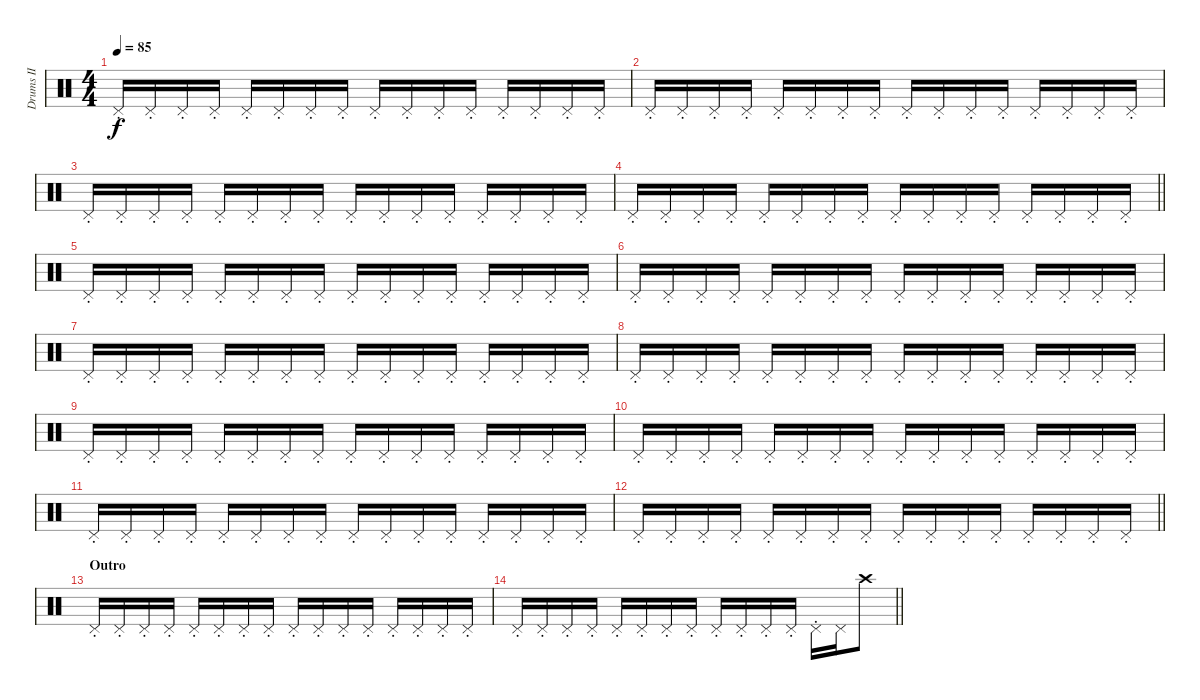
\track ("Drums II" "Drums II") {instrument percussion}
\staff {score}
\articulation defaults
\ts (4 4)
\tempo 85
\clef neutral
\ks c "Pedal Hi-Hat (hit)"{st}.16{dy f} "Pedal Hi-Hat (hit)"{st}.16 "Pedal Hi-Hat (hit)"{st}.16 "Pedal Hi-Hat (hit)"{st}.16 "Pedal Hi-Hat (hit)"{st}.16 "Pedal Hi-Hat (hit)"{st}.16 "Pedal Hi-Hat (hit)"{st}.16 "Pedal Hi-Hat (hit)"{st}.16 "Pedal Hi-Hat (hit)"{st}.16 "Pedal Hi-Hat (hit)"{st}.16 "Pedal Hi-Hat (hit)"{st}.16 "Pedal Hi-Hat (hit)"{st}.16 "Pedal Hi-Hat (hit)"{st}.16 "Pedal Hi-Hat (hit)"{st}.16 "Pedal Hi-Hat (hit)"{st}.16 "Pedal Hi-Hat (hit)"{st}.16
|
"Pedal Hi-Hat (hit)"{st}.16 "Pedal Hi-Hat (hit)"{st}.16 "Pedal Hi-Hat (hit)"{st}.16 "Pedal Hi-Hat (hit)"{st}.16 "Pedal Hi-Hat (hit)"{st}.16 "Pedal Hi-Hat (hit)"{st}.16 "Pedal Hi-Hat (hit)"{st}.16 "Pedal Hi-Hat (hit)"{st}.16 "Pedal Hi-Hat (hit)"{st}.16 "Pedal Hi-Hat (hit)"{st}.16 "Pedal Hi-Hat (hit)"{st}.16 "Pedal Hi-Hat (hit)"{st}.16 "Pedal Hi-Hat (hit)"{st}.16 "Pedal Hi-Hat (hit)"{st}.16 "Pedal Hi-Hat (hit)"{st}.16 "Pedal Hi-Hat (hit)"{st}.16 |
"Pedal Hi-Hat (hit)"{st}.16 "Pedal Hi-Hat (hit)"{st}.16 "Pedal Hi-Hat (hit)"{st}.16 "Pedal Hi-Hat (hit)"{st}.16 "Pedal Hi-Hat (hit)"{st}.16 "Pedal Hi-Hat (hit)"{st}.16 "Pedal Hi-Hat (hit)"{st}.16 "Pedal Hi-Hat (hit)"{st}.16 "Pedal Hi-Hat (hit)"{st}.16 "Pedal Hi-Hat (hit)"{st}.16 "Pedal Hi-Hat (hit)"{st}.16 "Pedal Hi-Hat (hit)"{st}.16 "Pedal Hi-Hat (hit)"{st}.16 "Pedal Hi-Hat (hit)"{st}.16 "Pedal Hi-Hat (hit)"{st}.16 "Pedal Hi-Hat (hit)"{st}.16 |
\barLineRight lightlight "Pedal Hi-Hat (hit)"{st}.16 "Pedal Hi-Hat (hit)"{st}.16 "Pedal Hi-Hat (hit)"{st}.16 "Pedal Hi-Hat (hit)"{st}.16 "Pedal Hi-Hat (hit)"{st}.16 "Pedal Hi-Hat (hit)"{st}.16 "Pedal Hi-Hat (hit)"{st}.16 "Pedal Hi-Hat (hit)"{st}.16 "Pedal Hi-Hat (hit)"{st}.16 "Pedal Hi-Hat (hit)"{st}.16 "Pedal Hi-Hat (hit)"{st}.16 "Pedal Hi-Hat (hit)"{st}.16 "Pedal Hi-Hat (hit)"{st}.16 "Pedal Hi-Hat (hit)"{st}.16 "Pedal Hi-Hat (hit)"{st}.16 "Pedal Hi-Hat (hit)"{st}.16
|
"Pedal Hi-Hat (hit)"{st}.16 "Pedal Hi-Hat (hit)"{st}.16 "Pedal Hi-Hat (hit)"{st}.16 "Pedal Hi-Hat (hit)"{st}.16 "Pedal Hi-Hat (hit)"{st}.16 "Pedal Hi-Hat (hit)"{st}.16 "Pedal Hi-Hat (hit)"{st}.16 "Pedal Hi-Hat (hit)"{st}.16 "Pedal Hi-Hat (hit)"{st}.16 "Pedal Hi-Hat (hit)"{st}.16 "Pedal Hi-Hat (hit)"{st}.16 "Pedal Hi-Hat (hit)"{st}.16 "Pedal Hi-Hat (hit)"{st}.16 "Pedal Hi-Hat (hit)"{st}.16 "Pedal Hi-Hat (hit)"{st}.16 "Pedal Hi-Hat (hit)"{st}.16 |
"Pedal Hi-Hat (hit)"{st}.16 "Pedal Hi-Hat (hit)"{st}.16 "Pedal Hi-Hat (hit)"{st}.16 "Pedal Hi-Hat (hit)"{st}.16 "Pedal Hi-Hat (hit)"{st}.16 "Pedal Hi-Hat (hit)"{st}.16 "Pedal Hi-Hat (hit)"{st}.16 "Pedal Hi-Hat (hit)"{st}.16 "Pedal Hi-Hat (hit)"{st}.16 "Pedal Hi-Hat (hit)"{st}.16 "Pedal Hi-Hat (hit)"{st}.16 "Pedal Hi-Hat (hit)"{st}.16 "Pedal Hi-Hat (hit)"{st}.16 "Pedal Hi-Hat (hit)"{st}.16 "Pedal Hi-Hat (hit)"{st}.16 "Pedal Hi-Hat (hit)"{st}.16 |
"Pedal Hi-Hat (hit)"{st}.16 "Pedal Hi-Hat (hit)"{st}.16 "Pedal Hi-Hat (hit)"{st}.16 "Pedal Hi-Hat (hit)"{st}.16 "Pedal Hi-Hat (hit)"{st}.16 "Pedal Hi-Hat (hit)"{st}.16 "Pedal Hi-Hat (hit)"{st}.16 "Pedal Hi-Hat (hit)"{st}.16 "Pedal Hi-Hat (hit)"{st}.16 "Pedal Hi-Hat (hit)"{st}.16 "Pedal Hi-Hat (hit)"{st}.16 "Pedal Hi-Hat (hit)"{st}.16 "Pedal Hi-Hat (hit)"{st}.16 "Pedal Hi-Hat (hit)"{st}.16 "Pedal Hi-Hat (hit)"{st}.16 "Pedal Hi-Hat (hit)"{st}.16 |
"Pedal Hi-Hat (hit)"{st}.16 "Pedal Hi-Hat (hit)"{st}.16 "Pedal Hi-Hat (hit)"{st}.16 "Pedal Hi-Hat (hit)"{st}.16 "Pedal Hi-Hat (hit)"{st}.16 "Pedal Hi-Hat (hit)"{st}.16 "Pedal Hi-Hat (hit)"{st}.16 "Pedal Hi-Hat (hit)"{st}.16 "Pedal Hi-Hat (hit)"{st}.16 "Pedal Hi-Hat (hit)"{st}.16 "Pedal Hi-Hat (hit)"{st}.16 "Pedal Hi-Hat (hit)"{st}.16 "Pedal Hi-Hat (hit)"{st}.16 "Pedal Hi-Hat (hit)"{st}.16 "Pedal Hi-Hat (hit)"{st}.16 "Pedal Hi-Hat (hit)"{st}.16 |
"Pedal Hi-Hat (hit)"{st}.16 "Pedal Hi-Hat (hit)"{st}.16 "Pedal Hi-Hat (hit)"{st}.16 "Pedal Hi-Hat (hit)"{st}.16 "Pedal Hi-Hat (hit)"{st}.16 "Pedal Hi-Hat (hit)"{st}.16 "Pedal Hi-Hat (hit)"{st}.16 "Pedal Hi-Hat (hit)"{st}.16 "Pedal Hi-Hat (hit)"{st}.16 "Pedal Hi-Hat (hit)"{st}.16 "Pedal Hi-Hat (hit)"{st}.16 "Pedal Hi-Hat (hit)"{st}.16 "Pedal Hi-Hat (hit)"{st}.16 "Pedal Hi-Hat (hit)"{st}.16 "Pedal Hi-Hat (hit)"{st}.16 "Pedal Hi-Hat (hit)"{st}.16 |
"Pedal Hi-Hat (hit)"{st}.16 "Pedal Hi-Hat (hit)"{st}.16 "Pedal Hi-Hat (hit)"{st}.16 "Pedal Hi-Hat (hit)"{st}.16 "Pedal Hi-Hat (hit)"{st}.16 "Pedal Hi-Hat (hit)"{st}.16 "Pedal Hi-Hat (hit)"{st}.16 "Pedal Hi-Hat (hit)"{st}.16 "Pedal Hi-Hat (hit)"{st}.16 "Pedal Hi-Hat (hit)"{st}.16 "Pedal Hi-Hat (hit)"{st}.16 "Pedal Hi-Hat (hit)"{st}.16 "Pedal Hi-Hat (hit)"{st}.16 "Pedal Hi-Hat (hit)"{st}.16 "Pedal Hi-Hat (hit)"{st}.16 "Pedal Hi-Hat (hit)"{st}.16 |
"Pedal Hi-Hat (hit)"{st}.16 "Pedal Hi-Hat (hit)"{st}.16 "Pedal Hi-Hat (hit)"{st}.16 "Pedal Hi-Hat (hit)"{st}.16 "Pedal Hi-Hat (hit)"{st}.16 "Pedal Hi-Hat (hit)"{st}.16 "Pedal Hi-Hat (hit)"{st}.16 "Pedal Hi-Hat (hit)"{st}.16 "Pedal Hi-Hat (hit)"{st}.16 "Pedal Hi-Hat (hit)"{st}.16 "Pedal Hi-Hat (hit)"{st}.16 "Pedal Hi-Hat (hit)"{st}.16 "Pedal Hi-Hat (hit)"{st}.16 "Pedal Hi-Hat (hit)"{st}.16 "Pedal Hi-Hat (hit)"{st}.16 "Pedal Hi-Hat (hit)"{st}.16 |
\barLineRight lightlight "Pedal Hi-Hat (hit)"{st}.16 "Pedal Hi-Hat (hit)"{st}.16 "Pedal Hi-Hat (hit)"{st}.16 "Pedal Hi-Hat (hit)"{st}.16 "Pedal Hi-Hat (hit)"{st}.16 "Pedal Hi-Hat (hit)"{st}.16 "Pedal Hi-Hat (hit)"{st}.16 "Pedal Hi-Hat (hit)"{st}.16 "Pedal Hi-Hat (hit)"{st}.16 "Pedal Hi-Hat (hit)"{st}.16 "Pedal Hi-Hat (hit)"{st}.16 "Pedal Hi-Hat (hit)"{st}.16 "Pedal Hi-Hat (hit)"{st}.16 "Pedal Hi-Hat (hit)"{st}.16 "Pedal Hi-Hat (hit)"{st}.16 "Pedal Hi-Hat (hit)"{st}.16
|
\section ("" "Outro")
"Pedal Hi-Hat (hit)"{st}.16 "Pedal Hi-Hat (hit)"{st}.16 "Pedal Hi-Hat (hit)"{st}.16 "Pedal Hi-Hat (hit)"{st}.16 "Pedal Hi-Hat (hit)"{st}.16 "Pedal Hi-Hat (hit)"{st}.16 "Pedal Hi-Hat (hit)"{st}.16 "Pedal Hi-Hat (hit)"{st}.16 "Pedal Hi-Hat (hit)"{st}.16 "Pedal Hi-Hat (hit)"{st}.16 "Pedal Hi-Hat (hit)"{st}.16 "Pedal Hi-Hat (hit)"{st}.16 "Pedal Hi-Hat (hit)"{st}.16 "Pedal Hi-Hat (hit)"{st}.16 "Pedal Hi-Hat (hit)"{st}.16 "Pedal Hi-Hat (hit)"{st}.16 |
\barLineRight lightlight "Pedal Hi-Hat (hit)"{st}.16 "Pedal Hi-Hat (hit)"{st}.16 "Pedal Hi-Hat (hit)"{st}.16 "Pedal Hi-Hat (hit)"{st}.16 "Pedal Hi-Hat (hit)"{st}.16 "Pedal Hi-Hat (hit)"{st}.16 "Pedal Hi-Hat (hit)"{st}.16 "Pedal Hi-Hat (hit)"{st}.16 "Pedal Hi-Hat (hit)"{st}.16 "Pedal Hi-Hat (hit)"{st}.16 "Pedal Hi-Hat (hit)"{st}.16 "Pedal Hi-Hat (hit)"{st}.16 "Pedal Hi-Hat (hit)"{st}.16 "Pedal Hi-Hat (hit)".16 "Crash high (hit)".8
